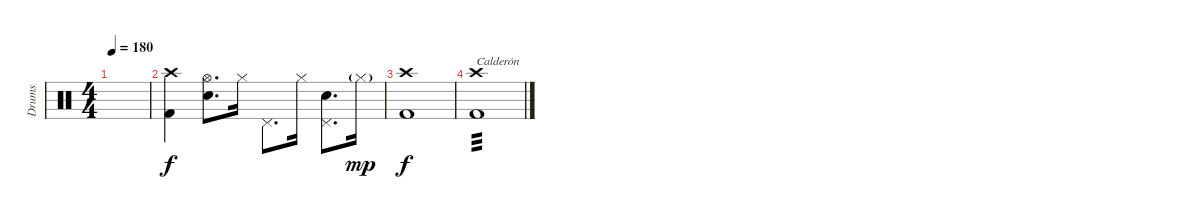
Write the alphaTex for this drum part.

\track ("Drums" "Drums") {instrument percussion}
\staff {score}
\articulation defaults
\ts (4 4)
\tempo 180
\clef neutral
\ks c
|
("Crash high (hit)" "Kick (hit) 2").4{dy f} ("Hi-Hat (open)" "Snare (hit) 2").8{d} "Hi-Hat (closed)".16 "Pedal Hi-Hat (hit)".8{d} "Hi-Hat (closed)".16 ("Pedal Hi-Hat (hit)" "Snare (hit) 2").8{d} "Hi-Hat (closed)"{g}.16{dy mp} |
("Crash high (hit)" "Kick (hit) 2").1{dy f} |
("Crash high (hit)" "Kick (hit) 2").1{txt "Calderón" tp 3}
